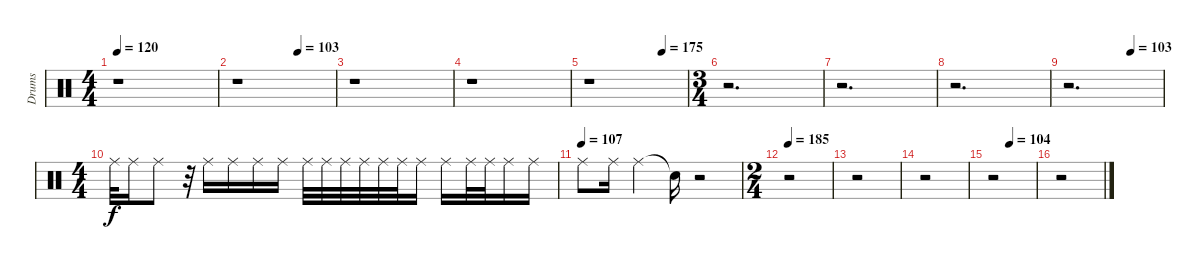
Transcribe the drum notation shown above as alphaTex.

\track ("Drums" "Drums") {instrument percussion}
\staff {score}
\articulation defaults
\ts (4 4)
\tempo 120
\clef neutral
\ks c
r.1{dy f} |
\tempo (103 0.625)
r.1 |
r.1 |
r.1 |
\tempo (175 0.75)
r.1 |
\ts (3 4)
r.2{d} |
r.2{d} |
r.2{d} |
\tempo (103 0.6666666666666666)
r.2{d} |
\ts (4 4)
"Ride (middle)".32 "Ride (middle)".16 "Ride (middle)".8 r.32 "Ride (middle)".16 "Ride (middle)".16 "Ride (middle)".16 "Ride (middle)".16 "Ride (middle)".32 "Ride (middle)".32 "Ride (middle)".32 "Ride (middle)".32 "Ride (middle)".32 "Ride (middle)".32 "Ride (middle)".16 "Ride (middle)".16 "Ride (middle)".32 "Ride (middle)".32 "Ride (middle)".16 "Ride (middle)".16 |
\tempo (107)
"Ride (middle)".8 "Ride (middle)".16 "Ride (middle)".4 "Snare (hit)"{t}.16 r.2 |
\ts (2 4)
\tempo 185
r.2 |
r.2 |
r.2 |
\tempo (104 0.4)
r.2 |
r.2
